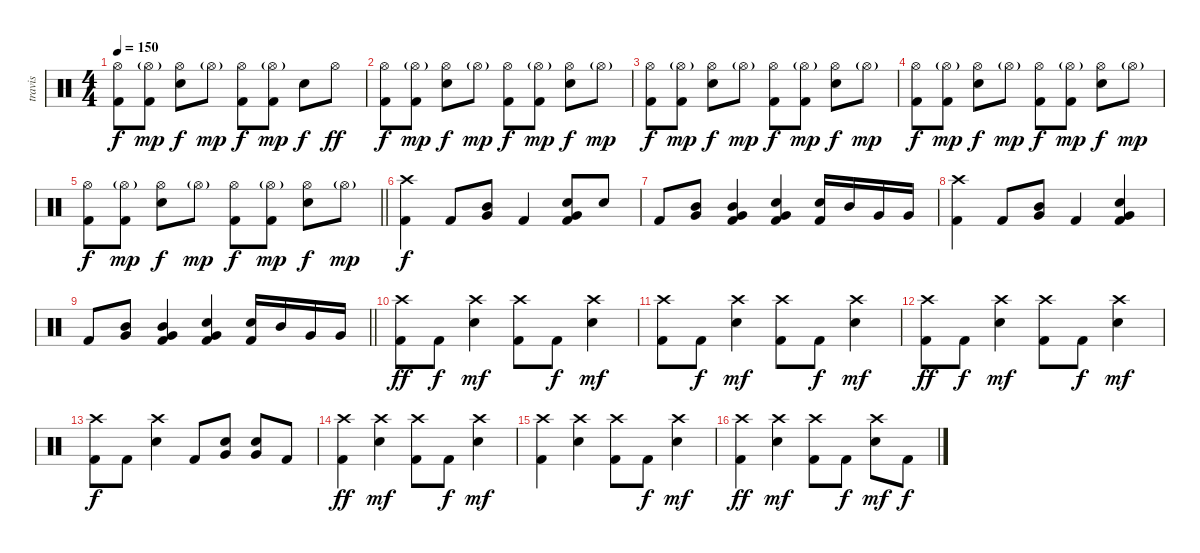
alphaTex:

\track ("travis" "travis") {instrument percussion}
\staff {score}
\articulation defaults
\ts (4 4)
\tempo 150
\clef neutral
\ks c
("Hi-Hat (open)" "Kick (hit) 2").8{dy f} ("Hi-Hat (open)"{g} "Kick (hit) 2").8{dy mp} ("Hi-Hat (open)" "Electric Snare (hit)").8{dy f} "Hi-Hat (open)"{g}.8{dy mp} ("Hi-Hat (open)" "Kick (hit) 2").8{dy f} ("Hi-Hat (open)"{g} "Kick (hit) 2").8{dy mp} "Electric Snare (hit)".8{dy f} "Hi-Hat (open)".8{dy ff} |
("Hi-Hat (open)" "Kick (hit) 2").8{dy f} ("Hi-Hat (open)"{g} "Kick (hit) 2").8{dy mp} ("Hi-Hat (open)" "Electric Snare (hit)").8{dy f} "Hi-Hat (open)"{g}.8{dy mp} ("Hi-Hat (open)" "Kick (hit) 2").8{dy f} ("Hi-Hat (open)"{g} "Kick (hit) 2").8{dy mp} ("Hi-Hat (open)" "Electric Snare (hit)").8{dy f} "Hi-Hat (open)"{g}.8{dy mp} |
("Hi-Hat (open)" "Kick (hit) 2").8{dy f} ("Hi-Hat (open)"{g} "Kick (hit) 2").8{dy mp} ("Hi-Hat (open)" "Electric Snare (hit)").8{dy f} "Hi-Hat (open)"{g}.8{dy mp} ("Hi-Hat (open)" "Kick (hit) 2").8{dy f} ("Hi-Hat (open)"{g} "Kick (hit) 2").8{dy mp} ("Hi-Hat (open)" "Electric Snare (hit)").8{dy f} "Hi-Hat (open)"{g}.8{dy mp} |
("Hi-Hat (open)" "Kick (hit) 2").8{dy f} ("Hi-Hat (open)"{g} "Kick (hit) 2").8{dy mp} ("Hi-Hat (open)" "Electric Snare (hit)").8{dy f} "Hi-Hat (open)"{g}.8{dy mp} ("Hi-Hat (open)" "Kick (hit) 2").8{dy f} ("Hi-Hat (open)"{g} "Kick (hit) 2").8{dy mp} ("Hi-Hat (open)" "Electric Snare (hit)").8{dy f} "Hi-Hat (open)"{g}.8{dy mp} |
\barLineRight lightlight
("Hi-Hat (open)" "Kick (hit) 2").8{dy f} ("Hi-Hat (open)"{g} "Kick (hit) 2").8{dy mp} ("Hi-Hat (open)" "Electric Snare (hit)").8{dy f} "Hi-Hat (open)"{g}.8{dy mp} ("Hi-Hat (open)" "Kick (hit) 2").8{dy f} ("Hi-Hat (open)"{g} "Kick (hit) 2").8{dy mp} ("Hi-Hat (open)" "Electric Snare (hit)").8{dy f} "Hi-Hat (open)"{g}.8{dy mp} |
("Crash high (hit)" "Kick (hit) 2").4{dy f} "Kick (hit) 2".8 ("Mid Tom (hit)" "Very Low Tom (hit)").8 "Kick (hit) 2".4 ("Very Low Tom (hit)" "Electric Snare (hit)" "Kick (hit) 2").8 "Electric Snare (hit)".8 |
"Kick (hit) 2".8 ("Mid Tom (hit)" "Very Low Tom (hit)").8 ("Mid Tom (hit)" "Very Low Tom (hit)" "Kick (hit) 2").4 ("Very Low Tom (hit)" "Electric Snare (hit)" "Kick (hit) 2").4 ("Electric Snare (hit)" "Kick (hit) 2").16 "Mid Tom (hit)".16 "Very Low Tom (hit)".16 "Very Low Tom (hit)".16 |
("Crash high (hit)" "Kick (hit) 2").4 "Kick (hit) 2".8 ("Mid Tom (hit)" "Very Low Tom (hit)").8 "Kick (hit) 2".4 ("Very Low Tom (hit)" "Electric Snare (hit)" "Kick (hit) 2").4 |
\barLineRight lightlight "Kick (hit) 2".8
("Mid Tom (hit)" "Very Low Tom (hit)").8 ("Mid Tom (hit)" "Very Low Tom (hit)" "Kick (hit) 2").4 ("Very Low Tom (hit)" "Electric Snare (hit)" "Kick (hit) 2").4 ("Electric Snare (hit)" "Kick (hit) 2").16 "Mid Tom (hit)".16 "Very Low Tom (hit)".16 "Very Low Tom (hit)".16 |
("Crash high (hit)" "Kick (hit) 2").8{dy ff} "Kick (hit) 2".8{dy f} ("Crash high (hit)" "Electric Snare (hit)").4{dy mf} ("Crash high (hit)" "Kick (hit) 2").8 "Kick (hit) 2".8{dy f} ("Crash high (hit)" "Electric Snare (hit)").4{dy mf} |
("Crash high (hit)" "Kick (hit) 2").8 "Kick (hit) 2".8{dy f} ("Crash high (hit)" "Electric Snare (hit)").4{dy mf} ("Crash high (hit)" "Kick (hit) 2").8 "Kick (hit) 2".8{dy f} ("Crash high (hit)" "Electric Snare (hit)").4{dy mf} |
("Crash high (hit)" "Kick (hit) 2").8{dy ff} "Kick (hit) 2".8{dy f} ("Crash high (hit)" "Electric Snare (hit)").4{dy mf} ("Crash high (hit)" "Kick (hit) 2").8 "Kick (hit) 2".8{dy f} ("Crash high (hit)" "Electric Snare (hit)").4{dy mf} |
("Crash high (hit)" "Kick (hit) 2").8{dy f} "Kick (hit) 2".8 ("Crash high (hit)" "Electric Snare (hit)").4 "Kick (hit) 2".8 ("Very Low Tom (hit)" "Electric Snare (hit)").8 ("Very Low Tom (hit)" "Electric Snare (hit)").8 "Kick (hit) 2".8 |
("Crash high (hit)" "Kick (hit) 2").4{dy ff} ("Crash high (hit)" "Electric Snare (hit)").4{dy mf} ("Crash high (hit)" "Kick (hit) 2").8 "Kick (hit) 2".8{dy f} ("Crash high (hit)" "Electric Snare (hit)").4{dy mf} |
("Crash high (hit)" "Kick (hit) 2").4 ("Crash high (hit)" "Electric Snare (hit)").4 ("Crash high (hit)" "Kick (hit) 2").8 "Kick (hit) 2".8{dy f} ("Crash high (hit)" "Electric Snare (hit)").4{dy mf} |
("Crash high (hit)" "Kick (hit) 2").4{dy ff} ("Crash high (hit)" "Electric Snare (hit)").4{dy mf} ("Crash high (hit)" "Kick (hit) 2").8 "Kick (hit) 2".8{dy f} ("Crash high (hit)" "Electric Snare (hit)").8{dy mf} "Kick (hit) 2".8{dy f}
